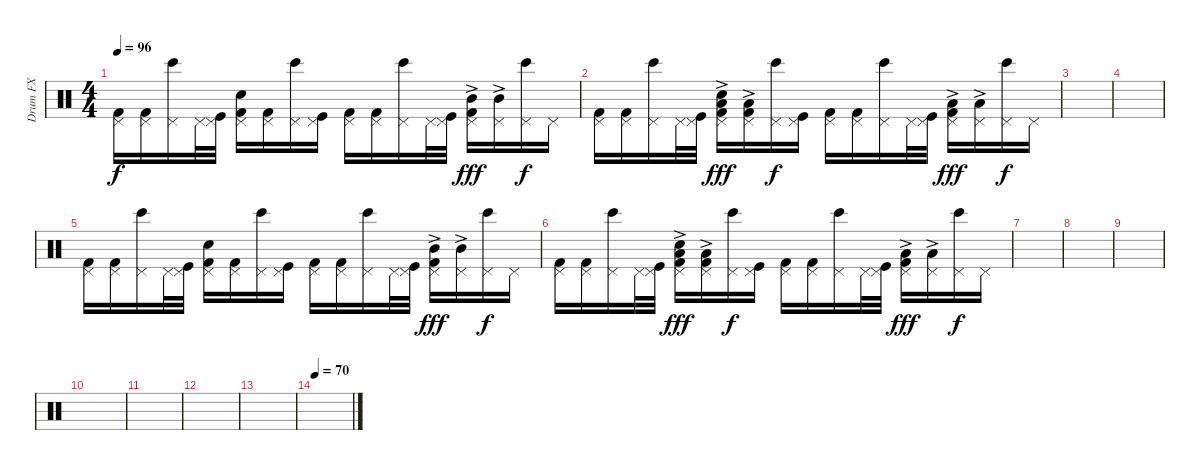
\track ("Drum FX" "Drum FX") {instrument percussion}
\staff {score}
\articulation defaults
\ts (4 4)
\tempo 96
\clef neutral
\ks c
("Pedal Hi-Hat (hit)" "Kick (hit) 2").16{dy f} ("Pedal Hi-Hat (hit)" "Kick (hit) 2").16 ("Pedal Hi-Hat (hit)" "Bongo High (hit)").16 "Pedal Hi-Hat (hit)".32 ("Pedal Hi-Hat (hit)" "Kick (hit)").32 ("Pedal Hi-Hat (hit)" "Electric Snare (hit)" "Kick (hit) 2").16 ("Pedal Hi-Hat (hit)" "Kick (hit) 2").16 ("Pedal Hi-Hat (hit)" "Bongo High (hit)").16 ("Pedal Hi-Hat (hit)" "Kick (hit)").16 ("Pedal Hi-Hat (hit)" "Kick (hit) 2").16 ("Pedal Hi-Hat (hit)" "Kick (hit) 2").16 ("Pedal Hi-Hat (hit)" "Bongo High (hit)").16 "Pedal Hi-Hat (hit)".32 ("Pedal Hi-Hat (hit)" "Kick (hit)").32 ("Pedal Hi-Hat (hit)" "Mid Tom (hit)"{ac} "Kick (hit) 2").16{dy fff} ("Pedal Hi-Hat (hit)" "Mid Tom (hit)"{ac}).16 ("Pedal Hi-Hat (hit)" "Bongo High (hit)").16{dy f} "Pedal Hi-Hat (hit)".16 |
("Pedal Hi-Hat (hit)" "Kick (hit) 2").16 ("Pedal Hi-Hat (hit)" "Kick (hit) 2").16 ("Pedal Hi-Hat (hit)" "Bongo High (hit)").16 "Pedal Hi-Hat (hit)".32 ("Pedal Hi-Hat (hit)" "Kick (hit)").32 ("Pedal Hi-Hat (hit)" "Low Tom (hit)"{ac} "Electric Snare (hit)" "Kick (hit) 2").16{dy fff} ("Pedal Hi-Hat (hit)" "Low Tom (hit)"{ac} "Kick (hit) 2").16 ("Pedal Hi-Hat (hit)" "Bongo High (hit)").16{dy f} ("Pedal Hi-Hat (hit)" "Kick (hit)").16 ("Pedal Hi-Hat (hit)" "Kick (hit) 2").16 ("Pedal Hi-Hat (hit)" "Kick (hit) 2").16 ("Pedal Hi-Hat (hit)" "Bongo High (hit)").16 "Pedal Hi-Hat (hit)".32 ("Pedal Hi-Hat (hit)" "Kick (hit)").32 ("Pedal Hi-Hat (hit)" "Low Floor Tom (hit)"{ac} "Kick (hit) 2").16{dy fff} ("Pedal Hi-Hat (hit)" "Low Floor Tom (hit)"{ac}).16 ("Pedal Hi-Hat (hit)" "Bongo High (hit)").16{dy f} "Pedal Hi-Hat (hit)".16 |
|
|
("Pedal Hi-Hat (hit)" "Kick (hit) 2").16 ("Pedal Hi-Hat (hit)" "Kick (hit) 2").16 ("Pedal Hi-Hat (hit)" "Bongo High (hit)").16 "Pedal Hi-Hat (hit)".32 ("Pedal Hi-Hat (hit)" "Kick (hit)").32 ("Pedal Hi-Hat (hit)" "Electric Snare (hit)" "Kick (hit) 2").16 ("Pedal Hi-Hat (hit)" "Kick (hit) 2").16 ("Pedal Hi-Hat (hit)" "Bongo High (hit)").16 ("Pedal Hi-Hat (hit)" "Kick (hit)").16 ("Pedal Hi-Hat (hit)" "Kick (hit) 2").16 ("Pedal Hi-Hat (hit)" "Kick (hit) 2").16 ("Pedal Hi-Hat (hit)" "Bongo High (hit)").16 "Pedal Hi-Hat (hit)".32 ("Pedal Hi-Hat (hit)" "Kick (hit)").32 ("Pedal Hi-Hat (hit)" "Mid Tom (hit)"{ac} "Kick (hit) 2").16{dy fff} ("Pedal Hi-Hat (hit)" "Mid Tom (hit)"{ac}).16 ("Pedal Hi-Hat (hit)" "Bongo High (hit)").16{dy f} "Pedal Hi-Hat (hit)".16 |
("Pedal Hi-Hat (hit)" "Kick (hit) 2").16 ("Pedal Hi-Hat (hit)" "Kick (hit) 2").16 ("Pedal Hi-Hat (hit)" "Bongo High (hit)").16 "Pedal Hi-Hat (hit)".32 ("Pedal Hi-Hat (hit)" "Kick (hit)").32 ("Pedal Hi-Hat (hit)" "Low Tom (hit)"{ac} "Electric Snare (hit)" "Kick (hit) 2").16{dy fff} ("Pedal Hi-Hat (hit)" "Low Tom (hit)"{ac} "Kick (hit) 2").16 ("Pedal Hi-Hat (hit)" "Bongo High (hit)").16{dy f} ("Pedal Hi-Hat (hit)" "Kick (hit)").16 ("Pedal Hi-Hat (hit)" "Kick (hit) 2").16 ("Pedal Hi-Hat (hit)" "Kick (hit) 2").16 ("Pedal Hi-Hat (hit)" "Bongo High (hit)").16 "Pedal Hi-Hat (hit)".32 ("Pedal Hi-Hat (hit)" "Kick (hit)").32 ("Pedal Hi-Hat (hit)" "Low Floor Tom (hit)"{ac} "Kick (hit) 2").16{dy fff} ("Pedal Hi-Hat (hit)" "Low Floor Tom (hit)"{ac}).16 ("Pedal Hi-Hat (hit)" "Bongo High (hit)").16{dy f} "Pedal Hi-Hat (hit)".16 |
|
|
|
|
|
|
|
\tempo 70
